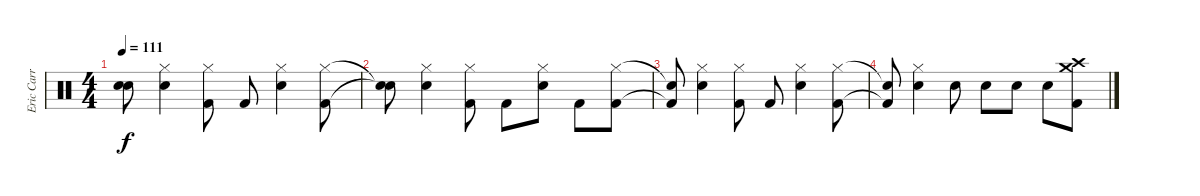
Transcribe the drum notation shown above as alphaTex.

\track ("Eric Carr" "Eric Carr") {instrument percussion}
\staff {score}
\articulation defaults
\ts (4 4)
\tempo 111
\clef neutral
\ks c
("Snare (hit)"{t} "Snare (hit)"{t}).8{dy f} ("Hi-Hat (closed)" "Snare (hit) 2").4 ("Hi-Hat (closed)" "Kick (hit) 2").8 "Kick (hit) 2".8 ("Hi-Hat (closed)" "Snare (hit) 2").4 ("Hi-Hat (closed)" "Kick (hit) 2").8 |
("Snare (hit)"{t} "Snare (hit)"{t}).8 ("Hi-Hat (closed)" "Snare (hit) 2").4 ("Hi-Hat (closed)" "Kick (hit) 2").8 "Kick (hit) 2".8 ("Hi-Hat (closed)" "Snare (hit) 2").8 "Kick (hit) 2".8 ("Hi-Hat (closed)" "Kick (hit) 2").8 |
("Snare (hit)"{t} "Kick (hit) 2"{t}).8 ("Hi-Hat (closed)" "Snare (hit) 2").4 ("Hi-Hat (closed)" "Kick (hit) 2").8 "Kick (hit) 2".8 ("Hi-Hat (closed)" "Snare (hit) 2").4 ("Hi-Hat (closed)" "Kick (hit) 2").8 |
("Snare (hit)"{t} "Kick (hit) 2"{t}).8 ("Hi-Hat (closed)" "Snare (hit) 2").4 "Snare (hit) 2".8 "Snare (hit) 2".8 "Snare (hit) 2".8 "Snare (hit) 2".8 ("Crash medium (hit)" "Crash high (hit)" "Kick (hit) 2").8
